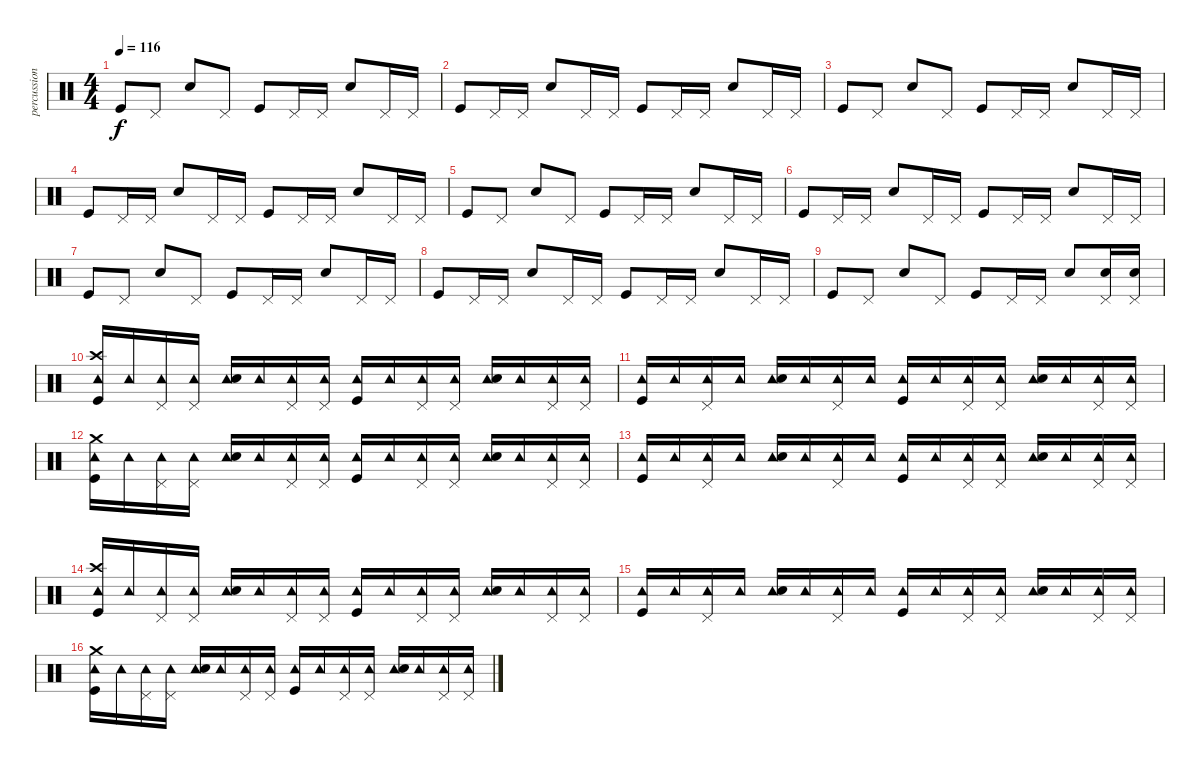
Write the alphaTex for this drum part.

\track ("percussion" "percussion") {instrument percussion}
\staff {score}
\articulation defaults
\ts (4 4)
\tempo 116
\clef neutral
\ks c "Kick (hit)".8{dy f} "Pedal Hi-Hat (hit)".8 "Electric Snare (hit)".8 "Pedal Hi-Hat (hit)".8 "Kick (hit)".8 "Pedal Hi-Hat (hit)".16 "Pedal Hi-Hat (hit)".16 "Electric Snare (hit)".8 "Pedal Hi-Hat (hit)".16 "Pedal Hi-Hat (hit)".16
|
"Kick (hit)".8 "Pedal Hi-Hat (hit)".16 "Pedal Hi-Hat (hit)".16 "Electric Snare (hit)".8 "Pedal Hi-Hat (hit)".16 "Pedal Hi-Hat (hit)".16 "Kick (hit)".8 "Pedal Hi-Hat (hit)".16 "Pedal Hi-Hat (hit)".16 "Electric Snare (hit)".8 "Pedal Hi-Hat (hit)".16 "Pedal Hi-Hat (hit)".16 |
"Kick (hit)".8 "Pedal Hi-Hat (hit)".8 "Electric Snare (hit)".8 "Pedal Hi-Hat (hit)".8 "Kick (hit)".8 "Pedal Hi-Hat (hit)".16 "Pedal Hi-Hat (hit)".16 "Electric Snare (hit)".8 "Pedal Hi-Hat (hit)".16 "Pedal Hi-Hat (hit)".16 |
"Kick (hit)".8 "Pedal Hi-Hat (hit)".16 "Pedal Hi-Hat (hit)".16 "Electric Snare (hit)".8 "Pedal Hi-Hat (hit)".16 "Pedal Hi-Hat (hit)".16 "Kick (hit)".8 "Pedal Hi-Hat (hit)".16 "Pedal Hi-Hat (hit)".16 "Electric Snare (hit)".8 "Pedal Hi-Hat (hit)".16 "Pedal Hi-Hat (hit)".16 |
"Kick (hit)".8 "Pedal Hi-Hat (hit)".8 "Electric Snare (hit)".8 "Pedal Hi-Hat (hit)".8 "Kick (hit)".8 "Pedal Hi-Hat (hit)".16 "Pedal Hi-Hat (hit)".16 "Electric Snare (hit)".8 "Pedal Hi-Hat (hit)".16 "Pedal Hi-Hat (hit)".16 |
"Kick (hit)".8 "Pedal Hi-Hat (hit)".16 "Pedal Hi-Hat (hit)".16 "Electric Snare (hit)".8 "Pedal Hi-Hat (hit)".16 "Pedal Hi-Hat (hit)".16 "Kick (hit)".8 "Pedal Hi-Hat (hit)".16 "Pedal Hi-Hat (hit)".16 "Electric Snare (hit)".8 "Pedal Hi-Hat (hit)".16 "Pedal Hi-Hat (hit)".16 |
"Kick (hit)".8 "Pedal Hi-Hat (hit)".8 "Electric Snare (hit)".8 "Pedal Hi-Hat (hit)".8 "Kick (hit)".8 "Pedal Hi-Hat (hit)".16 "Pedal Hi-Hat (hit)".16 "Electric Snare (hit)".8 "Pedal Hi-Hat (hit)".16 "Pedal Hi-Hat (hit)".16 |
"Kick (hit)".8 "Pedal Hi-Hat (hit)".16 "Pedal Hi-Hat (hit)".16 "Electric Snare (hit)".8 "Pedal Hi-Hat (hit)".16 "Pedal Hi-Hat (hit)".16 "Kick (hit)".8 "Pedal Hi-Hat (hit)".16 "Pedal Hi-Hat (hit)".16 "Electric Snare (hit)".8 "Pedal Hi-Hat (hit)".16 "Pedal Hi-Hat (hit)".16 |
"Kick (hit)".8 "Pedal Hi-Hat (hit)".8 "Electric Snare (hit)".8 "Pedal Hi-Hat (hit)".8 "Kick (hit)".8 "Pedal Hi-Hat (hit)".16 "Pedal Hi-Hat (hit)".16 "Electric Snare (hit)".8 ("Electric Snare (hit)" "Pedal Hi-Hat (hit)").16 ("Electric Snare (hit)" "Pedal Hi-Hat (hit)").16 |
("Crash high (hit)" "Tambourine (hit)" "Kick (hit)").16 "Tambourine (hit)".16 ("Tambourine (hit)" "Pedal Hi-Hat (hit)").16 ("Tambourine (hit)" "Pedal Hi-Hat (hit)").16 ("Tambourine (hit)" "Electric Snare (hit)").16 "Tambourine (hit)".16 ("Tambourine (hit)" "Pedal Hi-Hat (hit)").16 ("Tambourine (hit)" "Pedal Hi-Hat (hit)").16 ("Tambourine (hit)" "Kick (hit)").16 "Tambourine (hit)".16 ("Tambourine (hit)" "Pedal Hi-Hat (hit)").16 ("Tambourine (hit)" "Pedal Hi-Hat (hit)").16 ("Tambourine (hit)" "Electric Snare (hit)").16 "Tambourine (hit)".16 ("Tambourine (hit)" "Pedal Hi-Hat (hit)").16 ("Tambourine (hit)" "Pedal Hi-Hat (hit)").16 |
("Tambourine (hit)" "Kick (hit)").16 "Tambourine (hit)".16 ("Tambourine (hit)" "Pedal Hi-Hat (hit)").16 "Tambourine (hit)".16 ("Tambourine (hit)" "Electric Snare (hit)").16 "Tambourine (hit)".16 ("Tambourine (hit)" "Pedal Hi-Hat (hit)").16 "Tambourine (hit)".16 ("Tambourine (hit)" "Kick (hit)").16 "Tambourine (hit)".16 ("Tambourine (hit)" "Pedal Hi-Hat (hit)").16 ("Tambourine (hit)" "Pedal Hi-Hat (hit)").16 ("Tambourine (hit)" "Electric Snare (hit)").16 "Tambourine (hit)".16 ("Tambourine (hit)" "Pedal Hi-Hat (hit)").16 ("Tambourine (hit)" "Pedal Hi-Hat (hit)").16 |
("Crash medium (hit)" "Tambourine (hit)" "Kick (hit)").16 "Tambourine (hit)".16 ("Tambourine (hit)" "Pedal Hi-Hat (hit)").16 ("Tambourine (hit)" "Pedal Hi-Hat (hit)").16 ("Tambourine (hit)" "Electric Snare (hit)").16 "Tambourine (hit)".16 ("Tambourine (hit)" "Pedal Hi-Hat (hit)").16 ("Tambourine (hit)" "Pedal Hi-Hat (hit)").16 ("Tambourine (hit)" "Kick (hit)").16 "Tambourine (hit)".16 ("Tambourine (hit)" "Pedal Hi-Hat (hit)").16 ("Tambourine (hit)" "Pedal Hi-Hat (hit)").16 ("Tambourine (hit)" "Electric Snare (hit)").16 "Tambourine (hit)".16 ("Tambourine (hit)" "Pedal Hi-Hat (hit)").16 ("Tambourine (hit)" "Pedal Hi-Hat (hit)").16 |
("Tambourine (hit)" "Kick (hit)").16 "Tambourine (hit)".16 ("Tambourine (hit)" "Pedal Hi-Hat (hit)").16 "Tambourine (hit)".16 ("Tambourine (hit)" "Electric Snare (hit)").16 "Tambourine (hit)".16 ("Tambourine (hit)" "Pedal Hi-Hat (hit)").16 "Tambourine (hit)".16 ("Tambourine (hit)" "Kick (hit)").16 "Tambourine (hit)".16 ("Tambourine (hit)" "Pedal Hi-Hat (hit)").16 ("Tambourine (hit)" "Pedal Hi-Hat (hit)").16 ("Tambourine (hit)" "Electric Snare (hit)").16 "Tambourine (hit)".16 ("Tambourine (hit)" "Pedal Hi-Hat (hit)").16 ("Tambourine (hit)" "Pedal Hi-Hat (hit)").16 |
("Crash high (hit)" "Tambourine (hit)" "Kick (hit)").16 "Tambourine (hit)".16 ("Tambourine (hit)" "Pedal Hi-Hat (hit)").16 ("Tambourine (hit)" "Pedal Hi-Hat (hit)").16 ("Tambourine (hit)" "Electric Snare (hit)").16 "Tambourine (hit)".16 ("Tambourine (hit)" "Pedal Hi-Hat (hit)").16 ("Tambourine (hit)" "Pedal Hi-Hat (hit)").16 ("Tambourine (hit)" "Kick (hit)").16 "Tambourine (hit)".16 ("Tambourine (hit)" "Pedal Hi-Hat (hit)").16 ("Tambourine (hit)" "Pedal Hi-Hat (hit)").16 ("Tambourine (hit)" "Electric Snare (hit)").16 "Tambourine (hit)".16 ("Tambourine (hit)" "Pedal Hi-Hat (hit)").16 ("Tambourine (hit)" "Pedal Hi-Hat (hit)").16 |
("Tambourine (hit)" "Kick (hit)").16 "Tambourine (hit)".16 ("Tambourine (hit)" "Pedal Hi-Hat (hit)").16 "Tambourine (hit)".16 ("Tambourine (hit)" "Electric Snare (hit)").16 "Tambourine (hit)".16 ("Tambourine (hit)" "Pedal Hi-Hat (hit)").16 "Tambourine (hit)".16 ("Tambourine (hit)" "Kick (hit)").16 "Tambourine (hit)".16 ("Tambourine (hit)" "Pedal Hi-Hat (hit)").16 ("Tambourine (hit)" "Pedal Hi-Hat (hit)").16 ("Tambourine (hit)" "Electric Snare (hit)").16 "Tambourine (hit)".16 ("Tambourine (hit)" "Pedal Hi-Hat (hit)").16 ("Tambourine (hit)" "Pedal Hi-Hat (hit)").16 |
("Crash medium (hit)" "Tambourine (hit)" "Kick (hit)").16 "Tambourine (hit)".16 ("Tambourine (hit)" "Pedal Hi-Hat (hit)").16 ("Tambourine (hit)" "Pedal Hi-Hat (hit)").16 ("Tambourine (hit)" "Electric Snare (hit)").16 "Tambourine (hit)".16 ("Tambourine (hit)" "Pedal Hi-Hat (hit)").16 ("Tambourine (hit)" "Pedal Hi-Hat (hit)").16 ("Tambourine (hit)" "Kick (hit)").16 "Tambourine (hit)".16 ("Tambourine (hit)" "Pedal Hi-Hat (hit)").16 ("Tambourine (hit)" "Pedal Hi-Hat (hit)").16 ("Tambourine (hit)" "Electric Snare (hit)").16 "Tambourine (hit)".16 ("Tambourine (hit)" "Pedal Hi-Hat (hit)").16 ("Tambourine (hit)" "Pedal Hi-Hat (hit)").16
